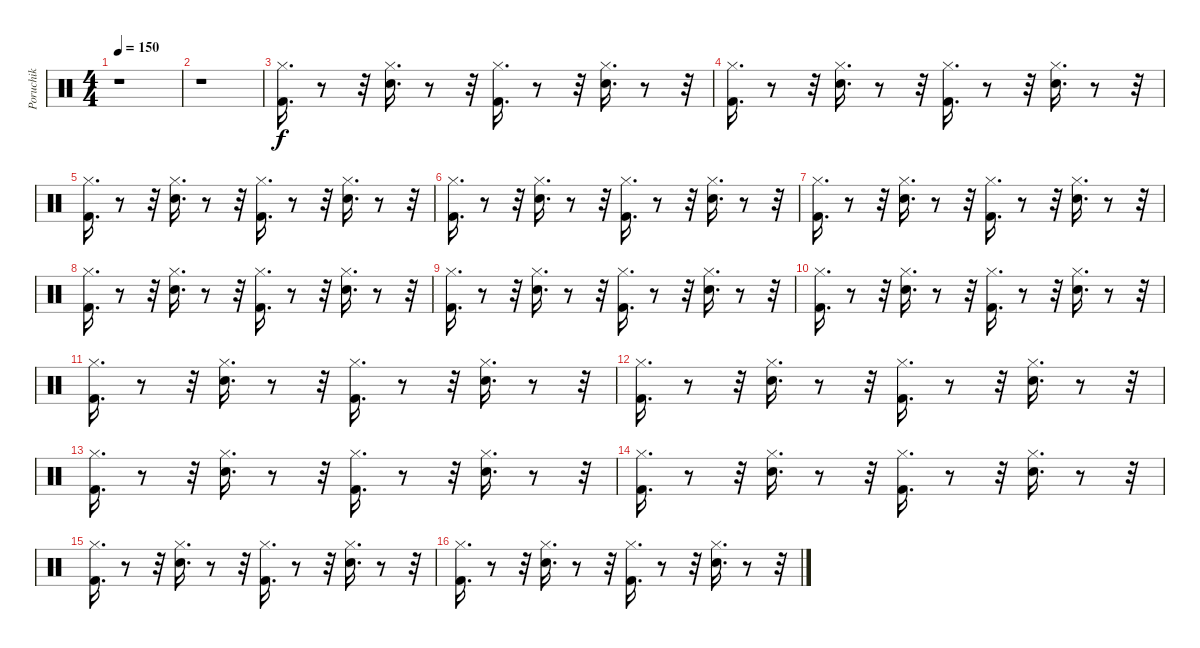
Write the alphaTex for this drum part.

\track ("Poruchik" "Poruchik") {instrument percussion}
\staff {score}
\articulation defaults
\ts (4 4)
\tempo 150
\clef neutral
\ks c
r.1{dy f} |
r.1 |
("Kick (hit) 2" "Hi-Hat (closed)").16{d} r.8 r.32 ("Snare (hit) 2" "Hi-Hat (closed)").16{d} r.8 r.32 ("Kick (hit) 2" "Hi-Hat (closed)").16{d} r.8 r.32 ("Snare (hit) 2" "Hi-Hat (closed)").16{d} r.8 r.32 |
("Kick (hit) 2" "Hi-Hat (closed)").16{d} r.8 r.32 ("Snare (hit) 2" "Hi-Hat (closed)").16{d} r.8 r.32 ("Kick (hit) 2" "Hi-Hat (closed)").16{d} r.8 r.32 ("Snare (hit) 2" "Hi-Hat (closed)").16{d} r.8 r.32 |
("Kick (hit) 2" "Hi-Hat (closed)").16{d} r.8 r.32 ("Snare (hit) 2" "Hi-Hat (closed)").16{d} r.8 r.32 ("Kick (hit) 2" "Hi-Hat (closed)").16{d} r.8 r.32 ("Snare (hit) 2" "Hi-Hat (closed)").16{d} r.8 r.32 |
("Kick (hit) 2" "Hi-Hat (closed)").16{d} r.8 r.32 ("Snare (hit) 2" "Hi-Hat (closed)").16{d} r.8 r.32 ("Kick (hit) 2" "Hi-Hat (closed)").16{d} r.8 r.32 ("Snare (hit) 2" "Hi-Hat (closed)").16{d} r.8 r.32 |
("Kick (hit) 2" "Hi-Hat (closed)").16{d} r.8 r.32 ("Snare (hit) 2" "Hi-Hat (closed)").16{d} r.8 r.32 ("Kick (hit) 2" "Hi-Hat (closed)").16{d} r.8 r.32 ("Snare (hit) 2" "Hi-Hat (closed)").16{d} r.8 r.32 |
("Kick (hit) 2" "Hi-Hat (closed)").16{d} r.8 r.32 ("Snare (hit) 2" "Hi-Hat (closed)").16{d} r.8 r.32 ("Kick (hit) 2" "Hi-Hat (closed)").16{d} r.8 r.32 ("Snare (hit) 2" "Hi-Hat (closed)").16{d} r.8 r.32 |
("Kick (hit) 2" "Hi-Hat (closed)").16{d} r.8 r.32 ("Snare (hit) 2" "Hi-Hat (closed)").16{d} r.8 r.32 ("Kick (hit) 2" "Hi-Hat (closed)").16{d} r.8 r.32 ("Snare (hit) 2" "Hi-Hat (closed)").16{d} r.8 r.32 |
("Kick (hit) 2" "Hi-Hat (closed)").16{d} r.8 r.32 ("Snare (hit) 2" "Hi-Hat (closed)").16{d} r.8 r.32 ("Kick (hit) 2" "Hi-Hat (closed)").16{d} r.8 r.32 ("Snare (hit) 2" "Hi-Hat (closed)").16{d} r.8 r.32 |
("Kick (hit) 2" "Hi-Hat (closed)").16{d} r.8 r.32 ("Snare (hit) 2" "Hi-Hat (closed)").16{d} r.8 r.32 ("Kick (hit) 2" "Hi-Hat (closed)").16{d} r.8 r.32 ("Snare (hit) 2" "Hi-Hat (closed)").16{d} r.8 r.32 |
("Kick (hit) 2" "Hi-Hat (closed)").16{d} r.8 r.32 ("Snare (hit) 2" "Hi-Hat (closed)").16{d} r.8 r.32 ("Kick (hit) 2" "Hi-Hat (closed)").16{d} r.8 r.32 ("Snare (hit) 2" "Hi-Hat (closed)").16{d} r.8 r.32 |
("Kick (hit) 2" "Hi-Hat (closed)").16{d} r.8 r.32 ("Snare (hit) 2" "Hi-Hat (closed)").16{d} r.8 r.32 ("Kick (hit) 2" "Hi-Hat (closed)").16{d} r.8 r.32 ("Snare (hit) 2" "Hi-Hat (closed)").16{d} r.8 r.32 |
("Kick (hit) 2" "Hi-Hat (closed)").16{d} r.8 r.32 ("Snare (hit) 2" "Hi-Hat (closed)").16{d} r.8 r.32 ("Kick (hit) 2" "Hi-Hat (closed)").16{d} r.8 r.32 ("Snare (hit) 2" "Hi-Hat (closed)").16{d} r.8 r.32 |
("Kick (hit) 2" "Hi-Hat (closed)").16{d} r.8 r.32 ("Snare (hit) 2" "Hi-Hat (closed)").16{d} r.8 r.32 ("Kick (hit) 2" "Hi-Hat (closed)").16{d} r.8 r.32 ("Snare (hit) 2" "Hi-Hat (closed)").16{d} r.8 r.32 |
("Kick (hit) 2" "Hi-Hat (closed)").16{d} r.8 r.32 ("Snare (hit) 2" "Hi-Hat (closed)").16{d} r.8 r.32 ("Kick (hit) 2" "Hi-Hat (closed)").16{d} r.8 r.32 ("Snare (hit) 2" "Hi-Hat (closed)").16{d} r.8 r.32
